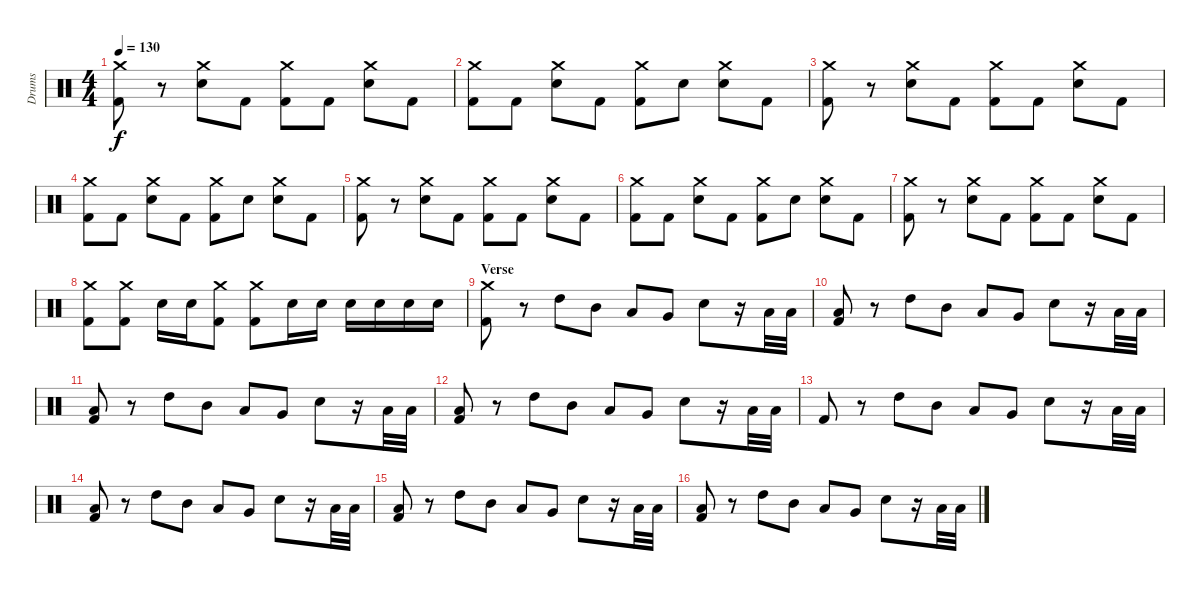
\track ("Drums" "Drums") {instrument percussion}
\staff {score}
\articulation defaults
\ts (4 4)
\tempo 130
\clef neutral
\ks c
("Crash medium (hit)" "Kick (hit) 2").8{dy f} r.8 ("Crash medium (hit)" "Electric Snare (hit)").8 "Kick (hit) 2".8 ("Crash medium (hit)" "Kick (hit) 2").8 "Kick (hit) 2".8 ("Crash medium (hit)" "Electric Snare (hit)").8 "Kick (hit) 2".8 |
("Crash medium (hit)" "Kick (hit) 2").8 "Kick (hit) 2".8 ("Crash medium (hit)" "Electric Snare (hit)").8 "Kick (hit) 2".8 ("Crash medium (hit)" "Kick (hit) 2").8 "Electric Snare (hit)".8 ("Crash medium (hit)" "Electric Snare (hit)").8 "Kick (hit) 2".8 |
("Crash medium (hit)" "Kick (hit) 2").8 r.8 ("Crash medium (hit)" "Electric Snare (hit)").8 "Kick (hit) 2".8 ("Crash medium (hit)" "Kick (hit) 2").8 "Kick (hit) 2".8 ("Crash medium (hit)" "Electric Snare (hit)").8 "Kick (hit) 2".8 |
("Crash medium (hit)" "Kick (hit) 2").8 "Kick (hit) 2".8 ("Crash medium (hit)" "Electric Snare (hit)").8 "Kick (hit) 2".8 ("Crash medium (hit)" "Kick (hit) 2").8 "Electric Snare (hit)".8 ("Crash medium (hit)" "Electric Snare (hit)").8 "Kick (hit) 2".8 |
("Crash medium (hit)" "Kick (hit) 2").8 r.8 ("Crash medium (hit)" "Electric Snare (hit)").8 "Kick (hit) 2".8 ("Crash medium (hit)" "Kick (hit) 2").8 "Kick (hit) 2".8 ("Crash medium (hit)" "Electric Snare (hit)").8 "Kick (hit) 2".8 |
("Crash medium (hit)" "Kick (hit) 2").8 "Kick (hit) 2".8 ("Crash medium (hit)" "Electric Snare (hit)").8 "Kick (hit) 2".8 ("Crash medium (hit)" "Kick (hit) 2").8 "Electric Snare (hit)".8 ("Crash medium (hit)" "Electric Snare (hit)").8 "Kick (hit) 2".8 |
("Crash medium (hit)" "Kick (hit) 2").8 r.8 ("Crash medium (hit)" "Electric Snare (hit)").8 "Kick (hit) 2".8 ("Crash medium (hit)" "Kick (hit) 2").8 "Kick (hit) 2".8 ("Crash medium (hit)" "Electric Snare (hit)").8 "Kick (hit) 2".8 |
("Crash medium (hit)" "Kick (hit) 2").8 ("Crash medium (hit)" "Kick (hit) 2").8 "Electric Snare (hit)".16 "Electric Snare (hit)".16 ("Crash medium (hit)" "Kick (hit) 2").8 ("Crash medium (hit)" "Kick (hit) 2").8 "Electric Snare (hit)".16 "Electric Snare (hit)".16 "Electric Snare (hit)".16 "Electric Snare (hit)".16 "Electric Snare (hit)".16 "Electric Snare (hit)".16 |
\section ("" "Verse")
("Crash medium (hit)" "Kick (hit) 2").8 r.8 "High Tom (hit)".8 "Mid Tom (hit)".8 "Low Tom (hit)".8 "Very Low Tom (hit)".8 "Electric Snare (hit)".8 r.16 "Low Floor Tom (hit)".32 "Low Floor Tom (hit)".32 |
("Low Floor Tom (hit)" "Kick (hit) 2").8 r.8 "High Tom (hit)".8 "Mid Tom (hit)".8 "Low Tom (hit)".8 "Very Low Tom (hit)".8 "Electric Snare (hit)".8 r.16 "Low Floor Tom (hit)".32 "Low Floor Tom (hit)".32 |
("Low Floor Tom (hit)" "Kick (hit) 2").8 r.8 "High Tom (hit)".8 "Mid Tom (hit)".8 "Low Tom (hit)".8 "Very Low Tom (hit)".8 "Electric Snare (hit)".8 r.16 "Low Floor Tom (hit)".32 "Low Floor Tom (hit)".32 |
("Low Floor Tom (hit)" "Kick (hit) 2").8 r.8 "High Tom (hit)".8 "Mid Tom (hit)".8 "Low Tom (hit)".8 "Very Low Tom (hit)".8 "Electric Snare (hit)".8 r.16 "Low Floor Tom (hit)".32 "Low Floor Tom (hit)".32 |
"Kick (hit) 2".8 r.8 "High Tom (hit)".8 "Mid Tom (hit)".8 "Low Tom (hit)".8 "Very Low Tom (hit)".8 "Electric Snare (hit)".8 r.16 "Low Floor Tom (hit)".32 "Low Floor Tom (hit)".32 |
("Low Floor Tom (hit)" "Kick (hit) 2").8 r.8 "High Tom (hit)".8 "Mid Tom (hit)".8 "Low Tom (hit)".8 "Very Low Tom (hit)".8 "Electric Snare (hit)".8 r.16 "Low Floor Tom (hit)".32 "Low Floor Tom (hit)".32 |
("Low Floor Tom (hit)" "Kick (hit) 2").8 r.8 "High Tom (hit)".8 "Mid Tom (hit)".8 "Low Tom (hit)".8 "Very Low Tom (hit)".8 "Electric Snare (hit)".8 r.16 "Low Floor Tom (hit)".32 "Low Floor Tom (hit)".32 |
("Low Floor Tom (hit)" "Kick (hit) 2").8 r.8 "High Tom (hit)".8 "Mid Tom (hit)".8 "Low Tom (hit)".8 "Very Low Tom (hit)".8 "Electric Snare (hit)".8 r.16 "Low Floor Tom (hit)".32 "Low Floor Tom (hit)".32
